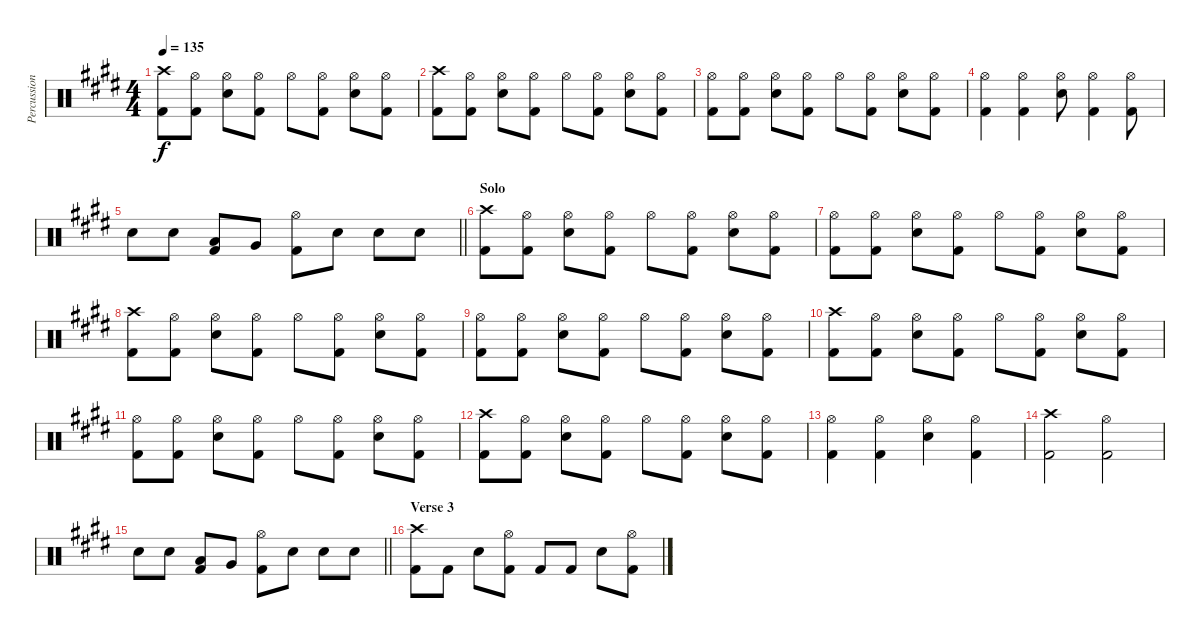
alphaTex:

\track ("Percussion" "Percussion") {instrument percussion}
\staff {score}
\articulation defaults
\ts (4 4)
\tempo 135
\clef neutral
\ks e
("Crash high (hit)" "Kick (hit) 2").8{dy f} ("Hi-Hat (open)" "Kick (hit) 2").8 ("Hi-Hat (open)" "Electric Snare (hit)").8 ("Hi-Hat (open)" "Kick (hit) 2").8 "Hi-Hat (open)".8 ("Hi-Hat (open)" "Kick (hit) 2").8 ("Hi-Hat (open)" "Electric Snare (hit)").8 ("Hi-Hat (open)" "Kick (hit) 2").8 |
("Crash high (hit)" "Kick (hit) 2").8 ("Hi-Hat (open)" "Kick (hit) 2").8 ("Hi-Hat (open)" "Electric Snare (hit)").8 ("Hi-Hat (open)" "Kick (hit) 2").8 "Hi-Hat (open)".8 ("Hi-Hat (open)" "Kick (hit) 2").8 ("Hi-Hat (open)" "Electric Snare (hit)").8 ("Hi-Hat (open)" "Kick (hit) 2").8 |
("Hi-Hat (open)" "Kick (hit) 2").8 ("Hi-Hat (open)" "Kick (hit) 2").8 ("Hi-Hat (open)" "Electric Snare (hit)").8 ("Hi-Hat (open)" "Kick (hit) 2").8 "Hi-Hat (open)".8 ("Hi-Hat (open)" "Kick (hit) 2").8 ("Hi-Hat (open)" "Electric Snare (hit)").8 ("Hi-Hat (open)" "Kick (hit) 2").8 |
("Hi-Hat (open)" "Kick (hit) 2").4 ("Hi-Hat (open)" "Kick (hit) 2").4 ("Hi-Hat (open)" "Electric Snare (hit)").8 ("Hi-Hat (open)" "Kick (hit) 2").4 ("Hi-Hat (open)" "Kick (hit) 2").8 |
\barLineRight lightlight "Electric Snare (hit)".8 "Electric Snare (hit)".8
("Low Tom (hit)" "Kick (hit) 2").8 "Very Low Tom (hit)".8 ("Hi-Hat (open)" "Kick (hit) 2").8 "Electric Snare (hit)".8 "Electric Snare (hit)".8 "Electric Snare (hit)".8 |
\section ("" "Solo")
("Crash high (hit)" "Kick (hit) 2").8 ("Hi-Hat (open)" "Kick (hit) 2").8 ("Hi-Hat (open)" "Electric Snare (hit)").8 ("Hi-Hat (open)" "Kick (hit) 2").8 "Hi-Hat (open)".8 ("Hi-Hat (open)" "Kick (hit) 2").8 ("Hi-Hat (open)" "Electric Snare (hit)").8 ("Hi-Hat (open)" "Kick (hit) 2").8 |
("Hi-Hat (open)" "Kick (hit) 2").8 ("Hi-Hat (open)" "Kick (hit) 2").8 ("Hi-Hat (open)" "Electric Snare (hit)").8 ("Hi-Hat (open)" "Kick (hit) 2").8 "Hi-Hat (open)".8 ("Hi-Hat (open)" "Kick (hit) 2").8 ("Hi-Hat (open)" "Electric Snare (hit)").8 ("Hi-Hat (open)" "Kick (hit) 2").8 |
("Crash high (hit)" "Kick (hit) 2").8 ("Hi-Hat (open)" "Kick (hit) 2").8 ("Hi-Hat (open)" "Electric Snare (hit)").8 ("Hi-Hat (open)" "Kick (hit) 2").8 "Hi-Hat (open)".8 ("Hi-Hat (open)" "Kick (hit) 2").8 ("Hi-Hat (open)" "Electric Snare (hit)").8 ("Hi-Hat (open)" "Kick (hit) 2").8 |
("Hi-Hat (open)" "Kick (hit) 2").8 ("Hi-Hat (open)" "Kick (hit) 2").8 ("Hi-Hat (open)" "Electric Snare (hit)").8 ("Hi-Hat (open)" "Kick (hit) 2").8 "Hi-Hat (open)".8 ("Hi-Hat (open)" "Kick (hit) 2").8 ("Hi-Hat (open)" "Electric Snare (hit)").8 ("Hi-Hat (open)" "Kick (hit) 2").8 |
("Crash high (hit)" "Kick (hit) 2").8 ("Hi-Hat (open)" "Kick (hit) 2").8 ("Hi-Hat (open)" "Electric Snare (hit)").8 ("Hi-Hat (open)" "Kick (hit) 2").8 "Hi-Hat (open)".8 ("Hi-Hat (open)" "Kick (hit) 2").8 ("Hi-Hat (open)" "Electric Snare (hit)").8 ("Hi-Hat (open)" "Kick (hit) 2").8 |
("Hi-Hat (open)" "Kick (hit) 2").8 ("Hi-Hat (open)" "Kick (hit) 2").8 ("Hi-Hat (open)" "Electric Snare (hit)").8 ("Hi-Hat (open)" "Kick (hit) 2").8 "Hi-Hat (open)".8 ("Hi-Hat (open)" "Kick (hit) 2").8 ("Hi-Hat (open)" "Electric Snare (hit)").8 ("Hi-Hat (open)" "Kick (hit) 2").8 |
("Crash high (hit)" "Kick (hit) 2").8 ("Hi-Hat (open)" "Kick (hit) 2").8 ("Hi-Hat (open)" "Electric Snare (hit)").8 ("Hi-Hat (open)" "Kick (hit) 2").8 "Hi-Hat (open)".8 ("Hi-Hat (open)" "Kick (hit) 2").8 ("Hi-Hat (open)" "Electric Snare (hit)").8 ("Hi-Hat (open)" "Kick (hit) 2").8 |
("Hi-Hat (open)" "Kick (hit) 2").4 ("Hi-Hat (open)" "Kick (hit) 2").4 ("Hi-Hat (open)" "Electric Snare (hit)").4 ("Hi-Hat (open)" "Kick (hit) 2").4 |
("Crash high (hit)" "Kick (hit) 2").2 ("Hi-Hat (open)" "Kick (hit) 2").2 |
\barLineRight lightlight "Electric Snare (hit)".8 "Electric Snare (hit)".8
("Low Tom (hit)" "Kick (hit) 2").8 "Very Low Tom (hit)".8 ("Hi-Hat (open)" "Kick (hit) 2").8 "Electric Snare (hit)".8 "Electric Snare (hit)".8 "Electric Snare (hit)".8 |
\section ("" "Verse 3")
("Crash high (hit)" "Kick (hit) 2").8 "Kick (hit) 2".8 "Electric Snare (hit)".8 ("Hi-Hat (open)" "Kick (hit) 2").8 "Kick (hit) 2".8 "Kick (hit) 2".8 "Electric Snare (hit)".8 ("Hi-Hat (open)" "Kick (hit) 2").8
